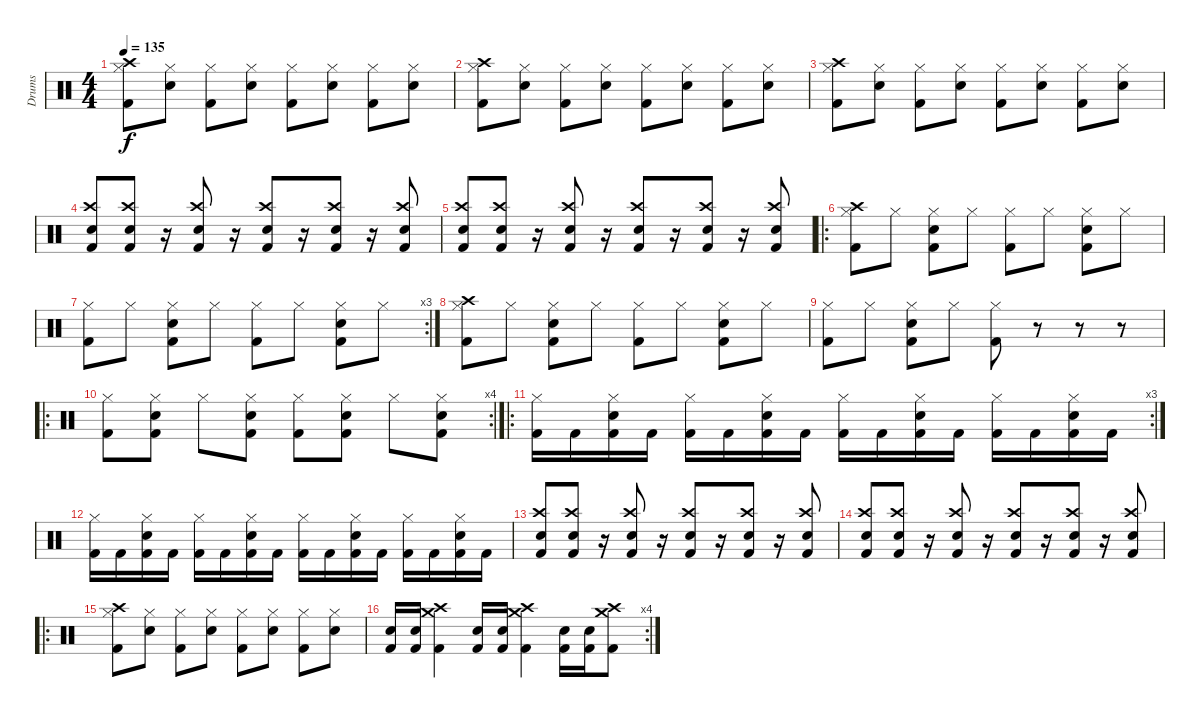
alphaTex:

\track ("Drums" "Drums") {instrument percussion}
\staff {score}
\articulation defaults
\ts (4 4)
\tempo 135
\clef neutral
\ks c
("Hi-Hat (closed)" "Kick (hit) 2" "Crash high (hit)").8{dy f} ("Hi-Hat (closed)" "Electric Snare (hit)").8 ("Hi-Hat (closed)" "Kick (hit) 2").8 ("Hi-Hat (closed)" "Electric Snare (hit)").8 ("Hi-Hat (closed)" "Kick (hit) 2").8 ("Hi-Hat (closed)" "Electric Snare (hit)").8 ("Hi-Hat (closed)" "Kick (hit) 2").8 ("Hi-Hat (closed)" "Electric Snare (hit)").8 |
("Hi-Hat (closed)" "Kick (hit) 2" "Crash high (hit)").8 ("Hi-Hat (closed)" "Electric Snare (hit)").8 ("Hi-Hat (closed)" "Kick (hit) 2").8 ("Hi-Hat (closed)" "Electric Snare (hit)").8 ("Hi-Hat (closed)" "Kick (hit) 2").8 ("Hi-Hat (closed)" "Electric Snare (hit)").8 ("Hi-Hat (closed)" "Kick (hit) 2").8 ("Hi-Hat (closed)" "Electric Snare (hit)").8 |
("Hi-Hat (closed)" "Kick (hit) 2" "Crash high (hit)").8 ("Hi-Hat (closed)" "Electric Snare (hit)").8 ("Hi-Hat (closed)" "Kick (hit) 2").8 ("Hi-Hat (closed)" "Electric Snare (hit)").8 ("Hi-Hat (closed)" "Kick (hit) 2").8 ("Hi-Hat (closed)" "Electric Snare (hit)").8 ("Hi-Hat (closed)" "Kick (hit) 2").8 ("Hi-Hat (closed)" "Electric Snare (hit)").8 |
("Electric Snare (hit)" "Kick (hit) 2" "Crash high (hit)").8 ("Electric Snare (hit)" "Kick (hit) 2" "Crash high (hit)").8 r.16 ("Electric Snare (hit)" "Kick (hit) 2" "Crash high (hit)").8 r.16 ("Electric Snare (hit)" "Kick (hit) 2" "Crash high (hit)").8 r.16 ("Electric Snare (hit)" "Kick (hit) 2" "Crash high (hit)").8 r.16 ("Electric Snare (hit)" "Kick (hit) 2" "Crash high (hit)").8 |
("Electric Snare (hit)" "Kick (hit) 2" "Crash high (hit)").8 ("Electric Snare (hit)" "Kick (hit) 2" "Crash high (hit)").8 r.16 ("Electric Snare (hit)" "Kick (hit) 2" "Crash high (hit)").8 r.16 ("Electric Snare (hit)" "Kick (hit) 2" "Crash high (hit)").8 r.16 ("Electric Snare (hit)" "Kick (hit) 2" "Crash high (hit)").8 r.16 ("Electric Snare (hit)" "Kick (hit) 2" "Crash high (hit)").8 |
\ro
("Hi-Hat (closed)" "Kick (hit) 2" "Crash high (hit)").8 "Hi-Hat (closed)".8 ("Hi-Hat (closed)" "Electric Snare (hit)" "Kick (hit) 2").8 "Hi-Hat (closed)".8 ("Hi-Hat (closed)" "Kick (hit) 2").8 "Hi-Hat (closed)".8 ("Hi-Hat (closed)" "Electric Snare (hit)" "Kick (hit) 2").8 "Hi-Hat (closed)".8 |
\rc 3
("Hi-Hat (closed)" "Kick (hit) 2").8 "Hi-Hat (closed)".8 ("Hi-Hat (closed)" "Electric Snare (hit)" "Kick (hit) 2").8 "Hi-Hat (closed)".8 ("Hi-Hat (closed)" "Kick (hit) 2").8 "Hi-Hat (closed)".8 ("Hi-Hat (closed)" "Electric Snare (hit)" "Kick (hit) 2").8 "Hi-Hat (closed)".8 |
("Hi-Hat (closed)" "Kick (hit) 2" "Crash high (hit)").8 "Hi-Hat (closed)".8 ("Hi-Hat (closed)" "Electric Snare (hit)" "Kick (hit) 2").8 "Hi-Hat (closed)".8 ("Hi-Hat (closed)" "Kick (hit) 2").8 "Hi-Hat (closed)".8 ("Hi-Hat (closed)" "Electric Snare (hit)" "Kick (hit) 2").8 "Hi-Hat (closed)".8 |
("Hi-Hat (closed)" "Kick (hit) 2").8 "Hi-Hat (closed)".8 ("Hi-Hat (closed)" "Electric Snare (hit)" "Kick (hit) 2").8 "Hi-Hat (closed)".8 ("Hi-Hat (closed)" "Kick (hit) 2").8 r.8 r.8 r.8 |
\ro
\rc 4
("Hi-Hat (closed)" "Kick (hit) 2").8 ("Hi-Hat (closed)" "Electric Snare (hit)" "Kick (hit) 2").8 "Hi-Hat (closed)".8 ("Hi-Hat (closed)" "Electric Snare (hit)" "Kick (hit) 2").8 ("Hi-Hat (closed)" "Kick (hit) 2").8 ("Hi-Hat (closed)" "Electric Snare (hit)" "Kick (hit) 2").8 "Hi-Hat (closed)".8 ("Hi-Hat (closed)" "Electric Snare (hit)" "Kick (hit) 2").8 |
\ro
\rc 3
("Kick (hit) 2" "Hi-Hat (closed)").16 "Kick (hit) 2".16 ("Kick (hit) 2" "Electric Snare (hit)" "Hi-Hat (closed)").16 "Kick (hit) 2".16 ("Kick (hit) 2" "Hi-Hat (closed)").16 "Kick (hit) 2".16 ("Kick (hit) 2" "Electric Snare (hit)" "Hi-Hat (closed)").16 "Kick (hit) 2".16 ("Kick (hit) 2" "Hi-Hat (closed)").16 "Kick (hit) 2".16 ("Kick (hit) 2" "Electric Snare (hit)" "Hi-Hat (closed)").16 "Kick (hit) 2".16 ("Kick (hit) 2" "Hi-Hat (closed)").16 "Kick (hit) 2".16 ("Kick (hit) 2" "Electric Snare (hit)" "Hi-Hat (closed)").16 "Kick (hit) 2".16 |
("Kick (hit) 2" "Hi-Hat (closed)").16 "Kick (hit) 2".16 ("Kick (hit) 2" "Electric Snare (hit)" "Hi-Hat (closed)").16 "Kick (hit) 2".16 ("Kick (hit) 2" "Hi-Hat (closed)").16 "Kick (hit) 2".16 ("Kick (hit) 2" "Electric Snare (hit)" "Hi-Hat (closed)").16 "Kick (hit) 2".16 ("Kick (hit) 2" "Hi-Hat (closed)").16 "Kick (hit) 2".16 ("Kick (hit) 2" "Electric Snare (hit)" "Hi-Hat (closed)").16 "Kick (hit) 2".16 ("Kick (hit) 2" "Hi-Hat (closed)").16 "Kick (hit) 2".16 ("Kick (hit) 2" "Electric Snare (hit)" "Hi-Hat (closed)").16 "Kick (hit) 2".16 |
("Electric Snare (hit)" "Kick (hit) 2" "Crash high (hit)").8 ("Electric Snare (hit)" "Kick (hit) 2" "Crash high (hit)").8 r.16 ("Electric Snare (hit)" "Kick (hit) 2" "Crash high (hit)").8 r.16 ("Electric Snare (hit)" "Kick (hit) 2" "Crash high (hit)").8 r.16 ("Electric Snare (hit)" "Kick (hit) 2" "Crash high (hit)").8 r.16 ("Electric Snare (hit)" "Kick (hit) 2" "Crash high (hit)").8 |
("Electric Snare (hit)" "Kick (hit) 2" "Crash high (hit)").8 ("Electric Snare (hit)" "Kick (hit) 2" "Crash high (hit)").8 r.16 ("Electric Snare (hit)" "Kick (hit) 2" "Crash high (hit)").8 r.16 ("Electric Snare (hit)" "Kick (hit) 2" "Crash high (hit)").8 r.16 ("Electric Snare (hit)" "Kick (hit) 2" "Crash high (hit)").8 r.16 ("Electric Snare (hit)" "Kick (hit) 2" "Crash high (hit)").8 |
\ro
("Hi-Hat (closed)" "Kick (hit) 2" "Crash high (hit)").8 ("Hi-Hat (closed)" "Electric Snare (hit)").8 ("Hi-Hat (closed)" "Kick (hit) 2").8 ("Hi-Hat (closed)" "Electric Snare (hit)").8 ("Hi-Hat (closed)" "Kick (hit) 2").8 ("Hi-Hat (closed)" "Electric Snare (hit)").8 ("Hi-Hat (closed)" "Kick (hit) 2").8 ("Hi-Hat (closed)" "Electric Snare (hit)").8 |
\rc 4
("Electric Snare (hit)" "Kick (hit) 2").16 ("Electric Snare (hit)" "Kick (hit) 2").16 ("Crash high (hit)" "Crash medium (hit)" "Kick (hit) 2").4 ("Electric Snare (hit)" "Kick (hit) 2").16 ("Electric Snare (hit)" "Kick (hit) 2").16 ("Crash high (hit)" "Crash medium (hit)" "Kick (hit) 2").4 ("Electric Snare (hit)" "Kick (hit) 2").16 ("Electric Snare (hit)" "Kick (hit) 2").16 ("Crash high (hit)" "Crash medium (hit)" "Kick (hit) 2").8
